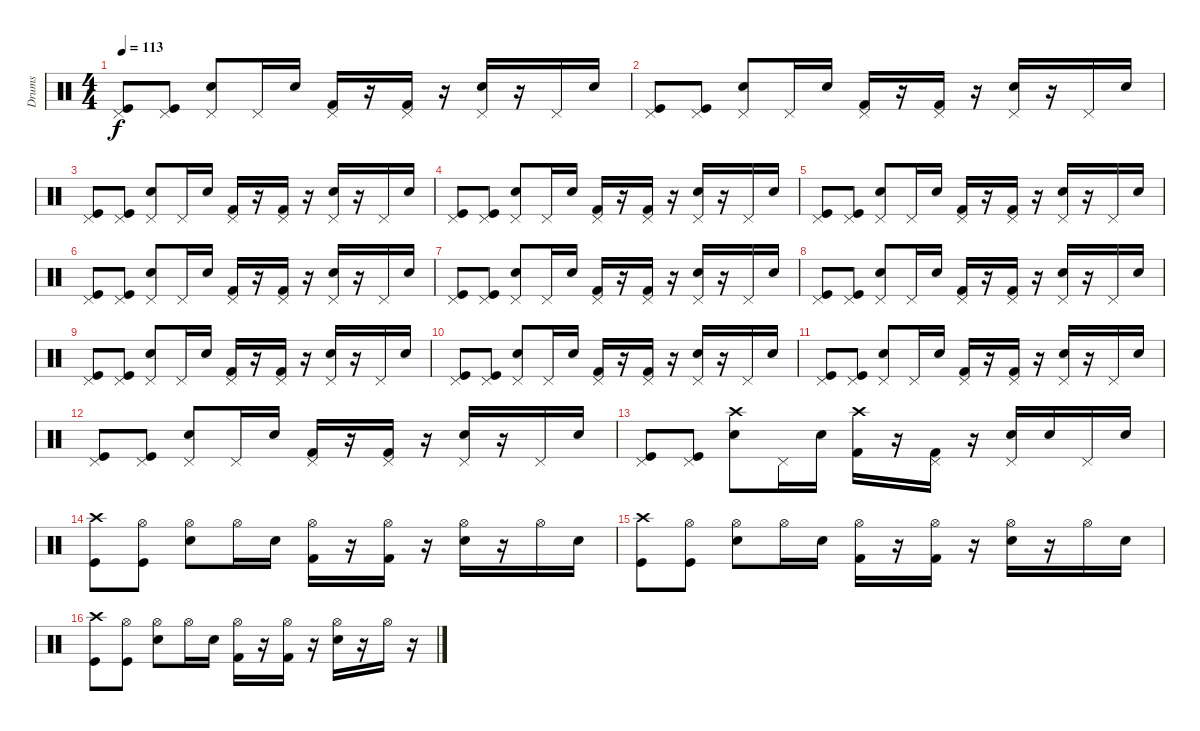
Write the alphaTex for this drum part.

\track ("Drums" "Drums") {instrument percussion}
\staff {score}
\articulation defaults
\ts (4 4)
\tempo 113
\clef neutral
\ks c
("Pedal Hi-Hat (hit)" "Kick (hit)").8{dy f} ("Pedal Hi-Hat (hit)" "Kick (hit)").8 ("Pedal Hi-Hat (hit)" "Electric Snare (hit)").8 "Pedal Hi-Hat (hit)".16 "Electric Snare (hit)".16 ("Pedal Hi-Hat (hit)" "Kick (hit) 2").16 r.16 ("Pedal Hi-Hat (hit)" "Kick (hit) 2").16 r.16 ("Pedal Hi-Hat (hit)" "Electric Snare (hit)").16 r.16 "Pedal Hi-Hat (hit)".16 "Electric Snare (hit)".16 |
("Pedal Hi-Hat (hit)" "Kick (hit)").8 ("Pedal Hi-Hat (hit)" "Kick (hit)").8 ("Pedal Hi-Hat (hit)" "Electric Snare (hit)").8 "Pedal Hi-Hat (hit)".16 "Electric Snare (hit)".16 ("Pedal Hi-Hat (hit)" "Kick (hit) 2").16 r.16 ("Pedal Hi-Hat (hit)" "Kick (hit) 2").16 r.16 ("Pedal Hi-Hat (hit)" "Electric Snare (hit)").16 r.16 "Pedal Hi-Hat (hit)".16 "Electric Snare (hit)".16 |
("Pedal Hi-Hat (hit)" "Kick (hit)").8 ("Pedal Hi-Hat (hit)" "Kick (hit)").8 ("Pedal Hi-Hat (hit)" "Electric Snare (hit)").8 "Pedal Hi-Hat (hit)".16 "Electric Snare (hit)".16 ("Pedal Hi-Hat (hit)" "Kick (hit) 2").16 r.16 ("Pedal Hi-Hat (hit)" "Kick (hit) 2").16 r.16 ("Pedal Hi-Hat (hit)" "Electric Snare (hit)").16 r.16 "Pedal Hi-Hat (hit)".16 "Electric Snare (hit)".16 |
("Pedal Hi-Hat (hit)" "Kick (hit)").8 ("Pedal Hi-Hat (hit)" "Kick (hit)").8 ("Pedal Hi-Hat (hit)" "Electric Snare (hit)").8 "Pedal Hi-Hat (hit)".16 "Electric Snare (hit)".16 ("Pedal Hi-Hat (hit)" "Kick (hit) 2").16 r.16 ("Pedal Hi-Hat (hit)" "Kick (hit) 2").16 r.16 ("Pedal Hi-Hat (hit)" "Electric Snare (hit)").16 r.16 "Pedal Hi-Hat (hit)".16 "Electric Snare (hit)".16 |
("Pedal Hi-Hat (hit)" "Kick (hit)").8 ("Pedal Hi-Hat (hit)" "Kick (hit)").8 ("Pedal Hi-Hat (hit)" "Electric Snare (hit)").8 "Pedal Hi-Hat (hit)".16 "Electric Snare (hit)".16 ("Pedal Hi-Hat (hit)" "Kick (hit) 2").16 r.16 ("Pedal Hi-Hat (hit)" "Kick (hit) 2").16 r.16 ("Pedal Hi-Hat (hit)" "Electric Snare (hit)").16 r.16 "Pedal Hi-Hat (hit)".16 "Electric Snare (hit)".16 |
("Pedal Hi-Hat (hit)" "Kick (hit)").8 ("Pedal Hi-Hat (hit)" "Kick (hit)").8 ("Pedal Hi-Hat (hit)" "Electric Snare (hit)").8 "Pedal Hi-Hat (hit)".16 "Electric Snare (hit)".16 ("Pedal Hi-Hat (hit)" "Kick (hit) 2").16 r.16 ("Pedal Hi-Hat (hit)" "Kick (hit) 2").16 r.16 ("Pedal Hi-Hat (hit)" "Electric Snare (hit)").16 r.16 "Pedal Hi-Hat (hit)".16 "Electric Snare (hit)".16 |
("Pedal Hi-Hat (hit)" "Kick (hit)").8 ("Pedal Hi-Hat (hit)" "Kick (hit)").8 ("Pedal Hi-Hat (hit)" "Electric Snare (hit)").8 "Pedal Hi-Hat (hit)".16 "Electric Snare (hit)".16 ("Pedal Hi-Hat (hit)" "Kick (hit) 2").16 r.16 ("Pedal Hi-Hat (hit)" "Kick (hit) 2").16 r.16 ("Pedal Hi-Hat (hit)" "Electric Snare (hit)").16 r.16 "Pedal Hi-Hat (hit)".16 "Electric Snare (hit)".16 |
("Pedal Hi-Hat (hit)" "Kick (hit)").8 ("Pedal Hi-Hat (hit)" "Kick (hit)").8 ("Pedal Hi-Hat (hit)" "Electric Snare (hit)").8 "Pedal Hi-Hat (hit)".16 "Electric Snare (hit)".16 ("Pedal Hi-Hat (hit)" "Kick (hit) 2").16 r.16 ("Pedal Hi-Hat (hit)" "Kick (hit) 2").16 r.16 ("Pedal Hi-Hat (hit)" "Electric Snare (hit)").16 r.16 "Pedal Hi-Hat (hit)".16 "Electric Snare (hit)".16 |
("Pedal Hi-Hat (hit)" "Kick (hit)").8 ("Pedal Hi-Hat (hit)" "Kick (hit)").8 ("Pedal Hi-Hat (hit)" "Electric Snare (hit)").8 "Pedal Hi-Hat (hit)".16 "Electric Snare (hit)".16 ("Pedal Hi-Hat (hit)" "Kick (hit) 2").16 r.16 ("Pedal Hi-Hat (hit)" "Kick (hit) 2").16 r.16 ("Pedal Hi-Hat (hit)" "Electric Snare (hit)").16 r.16 "Pedal Hi-Hat (hit)".16 "Electric Snare (hit)".16 |
("Pedal Hi-Hat (hit)" "Kick (hit)").8 ("Pedal Hi-Hat (hit)" "Kick (hit)").8 ("Pedal Hi-Hat (hit)" "Electric Snare (hit)").8 "Pedal Hi-Hat (hit)".16 "Electric Snare (hit)".16 ("Pedal Hi-Hat (hit)" "Kick (hit) 2").16 r.16 ("Pedal Hi-Hat (hit)" "Kick (hit) 2").16 r.16 ("Pedal Hi-Hat (hit)" "Electric Snare (hit)").16 r.16 "Pedal Hi-Hat (hit)".16 "Electric Snare (hit)".16 |
("Pedal Hi-Hat (hit)" "Kick (hit)").8 ("Pedal Hi-Hat (hit)" "Kick (hit)").8 ("Pedal Hi-Hat (hit)" "Electric Snare (hit)").8 "Pedal Hi-Hat (hit)".16 "Electric Snare (hit)".16 ("Pedal Hi-Hat (hit)" "Kick (hit) 2").16 r.16 ("Pedal Hi-Hat (hit)" "Kick (hit) 2").16 r.16 ("Pedal Hi-Hat (hit)" "Electric Snare (hit)").16 r.16 "Pedal Hi-Hat (hit)".16 "Electric Snare (hit)".16 |
("Pedal Hi-Hat (hit)" "Kick (hit)").8 ("Pedal Hi-Hat (hit)" "Kick (hit)").8 ("Pedal Hi-Hat (hit)" "Electric Snare (hit)").8 "Pedal Hi-Hat (hit)".16 "Electric Snare (hit)".16 ("Pedal Hi-Hat (hit)" "Kick (hit) 2").16 r.16 ("Pedal Hi-Hat (hit)" "Kick (hit) 2").16 r.16 ("Pedal Hi-Hat (hit)" "Electric Snare (hit)").16 r.16 "Pedal Hi-Hat (hit)".16 "Electric Snare (hit)".16 |
("Pedal Hi-Hat (hit)" "Kick (hit)").8 ("Pedal Hi-Hat (hit)" "Kick (hit)").8 ("Crash high (hit)" "Electric Snare (hit)").8 "Pedal Hi-Hat (hit)".16 "Electric Snare (hit)".16 ("Crash high (hit)" "Kick (hit) 2").16 r.16 ("Pedal Hi-Hat (hit)" "Kick (hit) 2").16 r.16 ("Pedal Hi-Hat (hit)" "Electric Snare (hit)").16 "Electric Snare (hit)".16 "Pedal Hi-Hat (hit)".16 "Electric Snare (hit)".16 |
("Crash high (hit)" "Kick (hit)").8 ("Hi-Hat (open)" "Kick (hit)").8 ("Hi-Hat (open)" "Electric Snare (hit)").8 "Hi-Hat (open)".16 "Electric Snare (hit)".16 ("Hi-Hat (open)" "Kick (hit) 2").16 r.16 ("Hi-Hat (open)" "Kick (hit) 2").16 r.16 ("Hi-Hat (open)" "Electric Snare (hit)").16 r.16 "Hi-Hat (open)".16 "Electric Snare (hit)".16 |
("Crash high (hit)" "Kick (hit)").8 ("Hi-Hat (open)" "Kick (hit)").8 ("Hi-Hat (open)" "Electric Snare (hit)").8 "Hi-Hat (open)".16 "Electric Snare (hit)".16 ("Hi-Hat (open)" "Kick (hit) 2").16 r.16 ("Hi-Hat (open)" "Kick (hit) 2").16 r.16 ("Hi-Hat (open)" "Electric Snare (hit)").16 r.16 "Hi-Hat (open)".16 "Electric Snare (hit)".16 |
("Crash high (hit)" "Kick (hit)").8 ("Hi-Hat (open)" "Kick (hit)").8 ("Hi-Hat (open)" "Electric Snare (hit)").8 "Hi-Hat (open)".16 "Electric Snare (hit)".16 ("Hi-Hat (open)" "Kick (hit) 2").16 r.16 ("Hi-Hat (open)" "Kick (hit) 2").16 r.16 ("Hi-Hat (open)" "Electric Snare (hit)").16 r.16 "Hi-Hat (open)".16 r.16
